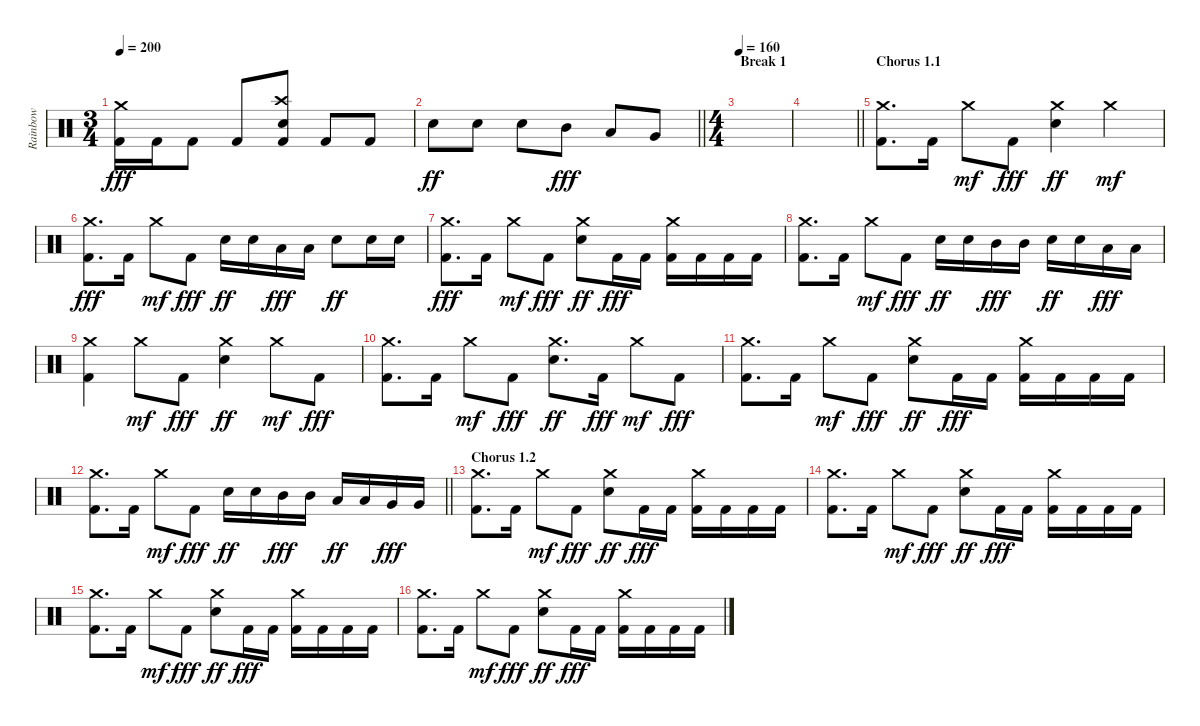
\track ("Rainbow" "Rainbow") {instrument percussion}
\staff {score}
\articulation defaults
\ts (3 4)
\tempo 200
\clef neutral
\ks c
("Crash medium (hit)" "Kick (hit) 2").16{dy fff} "Kick (hit) 2".16 "Kick (hit) 2".8 "Kick (hit) 2".8 ("Crash high (hit)" "Electric Snare (hit)" "Kick (hit) 2").8 "Kick (hit) 2".8 "Kick (hit) 2".8 |
\barLineRight lightlight "Electric Snare (hit)".8{dy ff} "Electric Snare (hit)".8 "Electric Snare (hit)".8 "Mid Tom (hit)".8{dy fff} "Low Tom (hit)".8 "Very Low Tom (hit)".8
|
\ts (4 4)
\section ("" "Break 1")
\tempo 160
|
\barLineRight lightlight
|
\section ("" "Chorus 1.1")
("Crash medium (hit)" "Kick (hit) 2").8{d} "Kick (hit) 2".16 "Crash medium (hit)".8{dy mf} "Kick (hit) 2".8{dy fff} ("Crash medium (hit)" "Electric Snare (hit)").4{dy ff} "Crash medium (hit)".4{dy mf} |
("Crash medium (hit)" "Kick (hit) 2").8{d dy fff} "Kick (hit) 2".16 "Crash medium (hit)".8{dy mf} "Kick (hit) 2".8{dy fff} "Electric Snare (hit)".16{dy ff} "Electric Snare (hit)".16 "Low Tom (hit)".16{dy fff} "Low Tom (hit)".16 "Electric Snare (hit)".8{dy ff} "Electric Snare (hit)".16 "Electric Snare (hit)".16 |
("Crash medium (hit)" "Kick (hit) 2").8{d dy fff} "Kick (hit) 2".16 "Crash medium (hit)".8{dy mf} "Kick (hit) 2".8{dy fff} ("Crash medium (hit)" "Electric Snare (hit)").8{dy ff} "Kick (hit) 2".16{dy fff} "Kick (hit) 2".16 ("Crash medium (hit)" "Kick (hit) 2").16 "Kick (hit) 2".16 "Kick (hit) 2".16 "Kick (hit) 2".16 |
("Crash medium (hit)" "Kick (hit) 2").8{d} "Kick (hit) 2".16 "Crash medium (hit)".8{dy mf} "Kick (hit) 2".8{dy fff} "Electric Snare (hit)".16{dy ff} "Electric Snare (hit)".16 "Mid Tom (hit)".16{dy fff} "Mid Tom (hit)".16 "Electric Snare (hit)".16{dy ff} "Electric Snare (hit)".16 "Low Tom (hit)".16{dy fff} "Low Tom (hit)".16 |
("Crash medium (hit)" "Kick (hit) 2").4 "Crash medium (hit)".8{dy mf} "Kick (hit) 2".8{dy fff} ("Crash medium (hit)" "Electric Snare (hit)").4{dy ff} "Crash medium (hit)".8{dy mf} "Kick (hit) 2".8{dy fff} |
("Crash medium (hit)" "Kick (hit) 2").8{d} "Kick (hit) 2".16 "Crash medium (hit)".8{dy mf} "Kick (hit) 2".8{dy fff} ("Crash medium (hit)" "Electric Snare (hit)").8{d dy ff} "Kick (hit) 2".16{dy fff} "Crash medium (hit)".8{dy mf} "Kick (hit) 2".8{dy fff} |
("Crash medium (hit)" "Kick (hit) 2").8{d} "Kick (hit) 2".16 "Crash medium (hit)".8{dy mf} "Kick (hit) 2".8{dy fff} ("Crash medium (hit)" "Electric Snare (hit)").8{dy ff} "Kick (hit) 2".16{dy fff} "Kick (hit) 2".16 ("Crash medium (hit)" "Kick (hit) 2").16 "Kick (hit) 2".16 "Kick (hit) 2".16 "Kick (hit) 2".16 |
\barLineRight lightlight
("Crash medium (hit)" "Kick (hit) 2").8{d} "Kick (hit) 2".16 "Crash medium (hit)".8{dy mf} "Kick (hit) 2".8{dy fff} "Electric Snare (hit)".16{dy ff} "Electric Snare (hit)".16 "Mid Tom (hit)".16{dy fff} "Mid Tom (hit)".16 "Low Tom (hit)".16{dy ff} "Low Tom (hit)".16 "Very Low Tom (hit)".16{dy fff} "Very Low Tom (hit)".16 |
\section ("" "Chorus 1.2")
("Crash medium (hit)" "Kick (hit) 2").8{d} "Kick (hit) 2".16 "Crash medium (hit)".8{dy mf} "Kick (hit) 2".8{dy fff} ("Crash medium (hit)" "Electric Snare (hit)").8{dy ff} "Kick (hit) 2".16{dy fff} "Kick (hit) 2".16 ("Crash medium (hit)" "Kick (hit) 2").16 "Kick (hit) 2".16 "Kick (hit) 2".16 "Kick (hit) 2".16 |
("Crash medium (hit)" "Kick (hit) 2").8{d} "Kick (hit) 2".16 "Crash medium (hit)".8{dy mf} "Kick (hit) 2".8{dy fff} ("Crash medium (hit)" "Electric Snare (hit)").8{dy ff} "Kick (hit) 2".16{dy fff} "Kick (hit) 2".16 ("Crash medium (hit)" "Kick (hit) 2").16 "Kick (hit) 2".16 "Kick (hit) 2".16 "Kick (hit) 2".16 |
("Crash medium (hit)" "Kick (hit) 2").8{d} "Kick (hit) 2".16 "Crash medium (hit)".8{dy mf} "Kick (hit) 2".8{dy fff} ("Crash medium (hit)" "Electric Snare (hit)").8{dy ff} "Kick (hit) 2".16{dy fff} "Kick (hit) 2".16 ("Crash medium (hit)" "Kick (hit) 2").16 "Kick (hit) 2".16 "Kick (hit) 2".16 "Kick (hit) 2".16 |
("Crash medium (hit)" "Kick (hit) 2").8{d} "Kick (hit) 2".16 "Crash medium (hit)".8{dy mf} "Kick (hit) 2".8{dy fff} ("Crash medium (hit)" "Electric Snare (hit)").8{dy ff} "Kick (hit) 2".16{dy fff} "Kick (hit) 2".16 ("Crash medium (hit)" "Kick (hit) 2").16 "Kick (hit) 2".16 "Kick (hit) 2".16 "Kick (hit) 2".16
